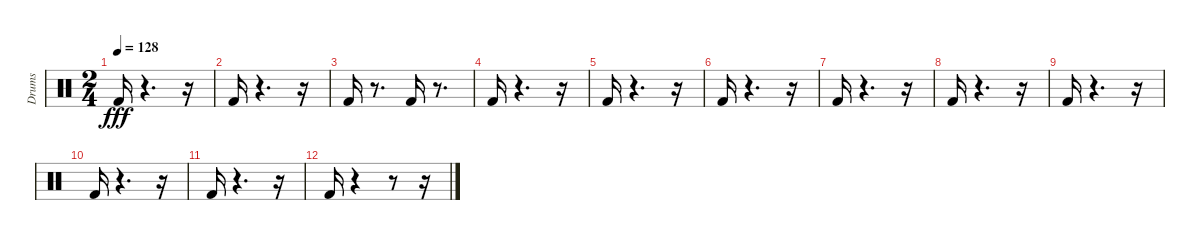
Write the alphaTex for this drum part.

\track ("Drums" "Drums") {instrument percussion}
\staff {score}
\articulation defaults
\ts (2 4)
\tempo 128
\clef neutral
\ks c "Kick (hit) 2".16{dy fff}
r.4{d} r.16 |
"Kick (hit) 2".16 r.4{d} r.16 |
"Kick (hit) 2".16 r.8{d} "Kick (hit) 2".16 r.8{d} |
"Kick (hit) 2".16 r.4{d} r.16 |
"Kick (hit) 2".16 r.4{d} r.16 |
"Kick (hit) 2".16 r.4{d} r.16 |
"Kick (hit) 2".16 r.4{d} r.16 |
"Kick (hit) 2".16 r.4{d} r.16 |
"Kick (hit) 2".16 r.4{d} r.16 |
"Kick (hit) 2".16 r.4{d} r.16 |
"Kick (hit) 2".16 r.4{d} r.16 |
"Kick (hit) 2".16 r.4 r.8 r.16
